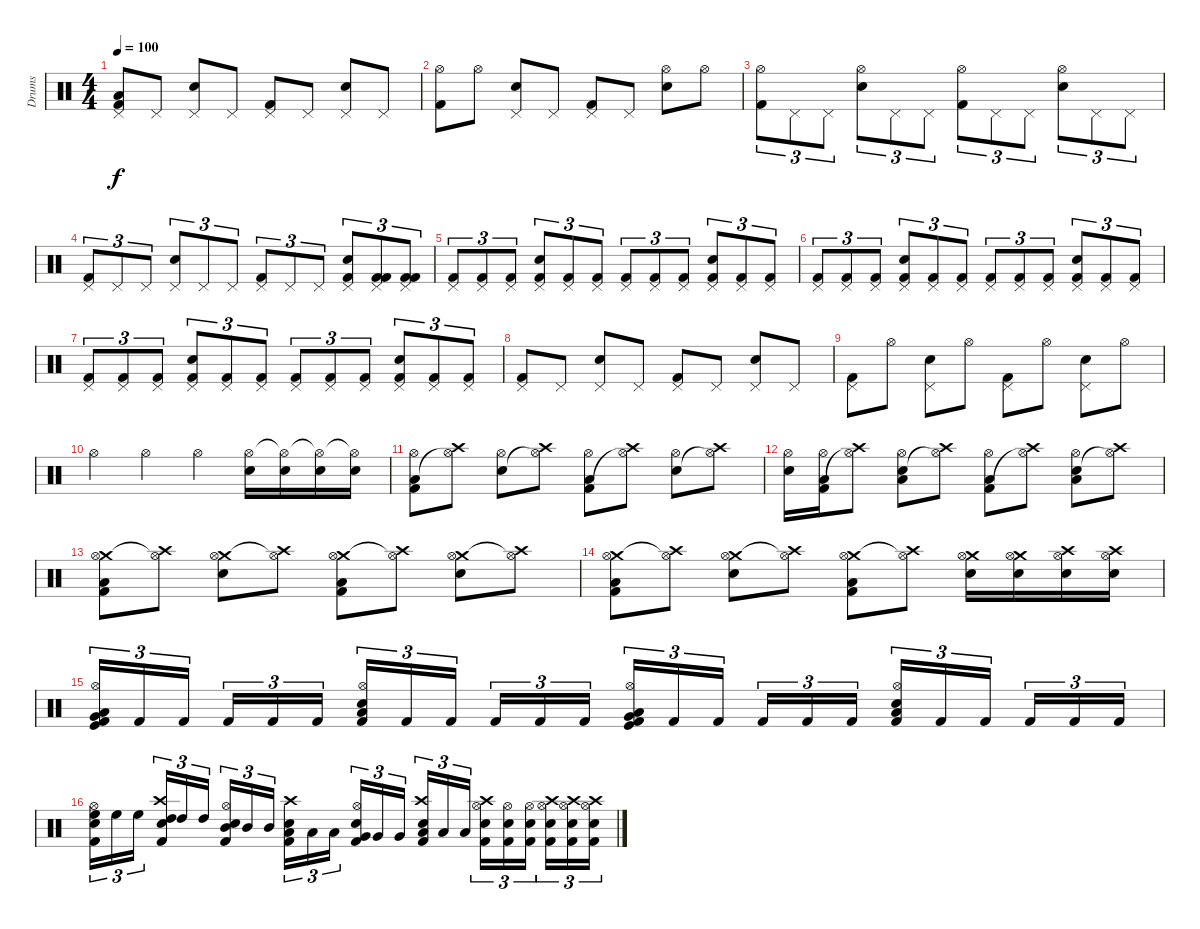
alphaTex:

\track ("Drums" "Drums") {instrument percussion}
\staff {score}
\articulation defaults
\ts (4 4)
\tempo 100
\clef neutral
\ks c
("Low Tom (hit)" "Pedal Hi-Hat (hit)" "Kick (hit) 2").8{dy f} "Pedal Hi-Hat (hit)".8 ("Pedal Hi-Hat (hit)" "Snare (hit) 2").8 "Pedal Hi-Hat (hit)".8 ("Pedal Hi-Hat (hit)" "Kick (hit) 2").8 "Pedal Hi-Hat (hit)".8 ("Pedal Hi-Hat (hit)" "Snare (hit) 2").8 "Pedal Hi-Hat (hit)".8 |
("Hi-Hat (open)" "Kick (hit) 2").8 "Hi-Hat (open)".8 ("Pedal Hi-Hat (hit)" "Snare (hit) 2").8 "Pedal Hi-Hat (hit)".8 ("Pedal Hi-Hat (hit)" "Kick (hit) 2").8 "Pedal Hi-Hat (hit)".8 ("Hi-Hat (open)" "Snare (hit) 2").8 "Hi-Hat (open)".8 |
("Hi-Hat (open)" "Kick (hit) 2").8{tu (3 2)} "Pedal Hi-Hat (hit)".8{tu (3 2)} "Pedal Hi-Hat (hit)".8{tu (3 2)} ("Hi-Hat (open)" "Snare (hit) 2").8{tu (3 2)} "Pedal Hi-Hat (hit)".8{tu (3 2)} "Pedal Hi-Hat (hit)".8{tu (3 2)} ("Hi-Hat (open)" "Kick (hit) 2").8{tu (3 2)} "Pedal Hi-Hat (hit)".8{tu (3 2)} "Pedal Hi-Hat (hit)".8{tu (3 2)} ("Hi-Hat (open)" "Snare (hit) 2").8{tu (3 2)} "Pedal Hi-Hat (hit)".8{tu (3 2)} "Pedal Hi-Hat (hit)".8{tu (3 2)} |
("Pedal Hi-Hat (hit)" "Kick (hit) 2").8{tu (3 2)} "Pedal Hi-Hat (hit)".8{tu (3 2)} "Pedal Hi-Hat (hit)".8{tu (3 2)} ("Pedal Hi-Hat (hit)" "Snare (hit) 2").8{tu (3 2)} "Pedal Hi-Hat (hit)".8{tu (3 2)} "Pedal Hi-Hat (hit)".8{tu (3 2)} ("Pedal Hi-Hat (hit)" "Kick (hit) 2").8{tu (3 2)} "Pedal Hi-Hat (hit)".8{tu (3 2)} "Pedal Hi-Hat (hit)".8{tu (3 2)} ("Pedal Hi-Hat (hit)" "Kick (hit) 2" "Snare (hit) 2").8{tu (3 2)} ("Pedal Hi-Hat (hit)" "Kick (hit) 2" "Kick (hit) 2").8{tu (3 2)} ("Pedal Hi-Hat (hit)" "Kick (hit) 2" "Kick (hit) 2").8{tu (3 2)} |
("Pedal Hi-Hat (hit)" "Kick (hit) 2").8{tu (3 2)} ("Pedal Hi-Hat (hit)" "Kick (hit) 2").8{tu (3 2)} ("Pedal Hi-Hat (hit)" "Kick (hit) 2").8{tu (3 2)} ("Pedal Hi-Hat (hit)" "Snare (hit) 2" "Kick (hit) 2").8{tu (3 2)} ("Pedal Hi-Hat (hit)" "Kick (hit) 2").8{tu (3 2)} ("Pedal Hi-Hat (hit)" "Kick (hit) 2").8{tu (3 2)} ("Pedal Hi-Hat (hit)" "Kick (hit) 2").8{tu (3 2)} ("Pedal Hi-Hat (hit)" "Kick (hit) 2").8{tu (3 2)} ("Pedal Hi-Hat (hit)" "Kick (hit) 2").8{tu (3 2)} ("Pedal Hi-Hat (hit)" "Snare (hit) 2" "Kick (hit) 2").8{tu (3 2)} ("Pedal Hi-Hat (hit)" "Kick (hit) 2").8{tu (3 2)} ("Pedal Hi-Hat (hit)" "Kick (hit) 2").8{tu (3 2)} |
("Pedal Hi-Hat (hit)" "Kick (hit) 2").8{tu (3 2)} ("Pedal Hi-Hat (hit)" "Kick (hit) 2").8{tu (3 2)} ("Pedal Hi-Hat (hit)" "Kick (hit) 2").8{tu (3 2)} ("Pedal Hi-Hat (hit)" "Snare (hit) 2" "Kick (hit) 2").8{tu (3 2)} ("Pedal Hi-Hat (hit)" "Kick (hit) 2").8{tu (3 2)} ("Pedal Hi-Hat (hit)" "Kick (hit) 2").8{tu (3 2)} ("Pedal Hi-Hat (hit)" "Kick (hit) 2").8{tu (3 2)} ("Pedal Hi-Hat (hit)" "Kick (hit) 2").8{tu (3 2)} ("Pedal Hi-Hat (hit)" "Kick (hit) 2").8{tu (3 2)} ("Pedal Hi-Hat (hit)" "Snare (hit) 2" "Kick (hit) 2").8{tu (3 2)} ("Pedal Hi-Hat (hit)" "Kick (hit) 2").8{tu (3 2)} ("Pedal Hi-Hat (hit)" "Kick (hit) 2").8{tu (3 2)} |
("Pedal Hi-Hat (hit)" "Kick (hit) 2").8{tu (3 2)} ("Pedal Hi-Hat (hit)" "Kick (hit) 2").8{tu (3 2)} ("Pedal Hi-Hat (hit)" "Kick (hit) 2").8{tu (3 2)} ("Pedal Hi-Hat (hit)" "Snare (hit) 2" "Kick (hit) 2").8{tu (3 2)} ("Pedal Hi-Hat (hit)" "Kick (hit) 2").8{tu (3 2)} ("Pedal Hi-Hat (hit)" "Kick (hit) 2").8{tu (3 2)} ("Pedal Hi-Hat (hit)" "Kick (hit) 2").8{tu (3 2)} ("Pedal Hi-Hat (hit)" "Kick (hit) 2").8{tu (3 2)} ("Pedal Hi-Hat (hit)" "Kick (hit) 2").8{tu (3 2)} ("Pedal Hi-Hat (hit)" "Snare (hit) 2" "Kick (hit) 2").8{tu (3 2)} ("Pedal Hi-Hat (hit)" "Kick (hit) 2").8{tu (3 2)} ("Pedal Hi-Hat (hit)" "Kick (hit) 2").8{tu (3 2)} |
("Pedal Hi-Hat (hit)" "Kick (hit) 2").8 "Pedal Hi-Hat (hit)".8 ("Pedal Hi-Hat (hit)" "Snare (hit) 2").8 "Pedal Hi-Hat (hit)".8 ("Pedal Hi-Hat (hit)" "Kick (hit) 2").8 "Pedal Hi-Hat (hit)".8 ("Pedal Hi-Hat (hit)" "Snare (hit) 2").8 "Pedal Hi-Hat (hit)".8 |
("Pedal Hi-Hat (hit)" "Kick (hit) 2").8 "Hi-Hat (open)".8 ("Pedal Hi-Hat (hit)" "Snare (hit) 2").8 "Hi-Hat (open)".8 ("Pedal Hi-Hat (hit)" "Kick (hit) 2").8 "Hi-Hat (open)".8 ("Pedal Hi-Hat (hit)" "Snare (hit) 2").8 "Hi-Hat (open)".8 |
"Hi-Hat (open)".4 "Hi-Hat (open)".4 "Hi-Hat (open)".4 ("Hi-Hat (open)" "Snare (hit) 2").16 ("Hi-Hat (open)"{t} "Snare (hit) 2").16 ("Hi-Hat (open)"{t} "Snare (hit) 2").16 ("Hi-Hat (open)"{t} "Snare (hit) 2").16 |
("Hi-Hat (open)" "Low Floor Tom (hit)" "Kick (hit) 2").8 ("Crash high (hit)" "Hi-Hat (open)"{t}).8 ("Hi-Hat (open)" "Snare (hit) 2").8 ("Crash high (hit)" "Hi-Hat (open)"{t}).8 ("Hi-Hat (open)" "Kick (hit) 2" "Low Floor Tom (hit)").8 ("Crash high (hit)" "Hi-Hat (open)"{t}).8 ("Hi-Hat (open)" "Snare (hit) 2").8 ("Crash high (hit)" "Hi-Hat (open)"{t}).8 |
("Hi-Hat (open)" "Snare (hit) 2").16 ("Hi-Hat (open)" "Kick (hit) 2" "Low Floor Tom (hit)").16 ("Crash high (hit)" "Hi-Hat (open)"{t}).8 ("Hi-Hat (open)" "Snare (hit) 2" "Low Floor Tom (hit)").8 ("Crash high (hit)" "Hi-Hat (open)"{t}).8 ("Hi-Hat (open)" "Kick (hit) 2" "Low Floor Tom (hit)").8 ("Crash high (hit)" "Hi-Hat (open)"{t}).8 ("Hi-Hat (open)" "Snare (hit) 2" "Low Floor Tom (hit)").8 ("Crash high (hit)" "Hi-Hat (open)"{t}).8 |
("Crash medium (hit)" "Hi-Hat (open)" "Low Floor Tom (hit)" "Kick (hit) 2").8 ("Crash high (hit)" "Hi-Hat (open)"{t}).8 ("Crash medium (hit)" "Hi-Hat (open)" "Snare (hit) 2").8 ("Crash high (hit)" "Hi-Hat (open)"{t}).8 ("Crash medium (hit)" "Hi-Hat (open)" "Kick (hit) 2" "Low Floor Tom (hit)").8 ("Crash high (hit)" "Hi-Hat (open)"{t}).8 ("Crash medium (hit)" "Hi-Hat (open)" "Snare (hit) 2").8 ("Crash high (hit)" "Hi-Hat (open)"{t}).8 |
("Crash medium (hit)" "Hi-Hat (open)" "Low Floor Tom (hit)" "Kick (hit) 2").8 ("Crash high (hit)" "Hi-Hat (open)"{t}).8 ("Crash medium (hit)" "Hi-Hat (open)" "Snare (hit) 2").8 ("Crash high (hit)" "Hi-Hat (open)"{t}).8 ("Crash medium (hit)" "Hi-Hat (open)" "Kick (hit) 2" "Low Floor Tom (hit)").8 ("Crash high (hit)" "Hi-Hat (open)"{t}).8 ("Crash medium (hit)" "Hi-Hat (open)" "Snare (hit) 2").16 ("Crash medium (hit)" "Hi-Hat (open)" "Snare (hit) 2").16 ("Crash high (hit)" "Hi-Hat (open)" "Snare (hit) 2").16 ("Crash high (hit)" "Hi-Hat (open)" "Snare (hit) 2").16 |
("Hi-Hat (open)" "Very Low Tom (hit)" "Low Floor Tom (hit)" "Kick (hit) 2" "Kick (hit)").16{tu (3 2)} "Kick (hit) 2".16{tu (3 2)} "Kick (hit) 2".16{tu (3 2)} "Kick (hit) 2".16{tu (3 2)} "Kick (hit) 2".16{tu (3 2)} "Kick (hit) 2".16{tu (3 2)} ("Hi-Hat (open)" "Snare (hit) 2" "Low Floor Tom (hit)" "Kick (hit) 2").16{tu (3 2)} "Kick (hit) 2".16{tu (3 2)} "Kick (hit) 2".16{tu (3 2)} "Kick (hit) 2".16{tu (3 2)} "Kick (hit) 2".16{tu (3 2)} "Kick (hit) 2".16{tu (3 2)} ("Hi-Hat (open)" "Very Low Tom (hit)" "Low Floor Tom (hit)" "Kick (hit) 2" "Kick (hit)").16{tu (3 2)} "Kick (hit) 2".16{tu (3 2)} "Kick (hit) 2".16{tu (3 2)} "Kick (hit) 2".16{tu (3 2)} "Kick (hit) 2".16{tu (3 2)} "Kick (hit) 2".16{tu (3 2)} ("Hi-Hat (open)" "Snare (hit) 2" "Low Floor Tom (hit)" "Kick (hit) 2").16{tu (3 2)} "Kick (hit) 2".16{tu (3 2)} "Kick (hit) 2".16{tu (3 2)} "Kick (hit) 2".16{tu (3 2)} "Kick (hit) 2".16{tu (3 2)} "Kick (hit) 2".16{tu (3 2)} |
("Hi-Hat (open)" "High Floor Tom (hit)" "Kick (hit) 2" "Electric Snare (hit)").16{tu (3 2)} "High Floor Tom (hit)".16{tu (3 2)} "High Floor Tom (hit)".16{tu (3 2)} ("Crash high (hit)" "High Tom (hit)" "Kick (hit) 2" "Electric Snare (hit)").16{tu (3 2)} "High Tom (hit)".16{tu (3 2)} "High Tom (hit)".16{tu (3 2)} ("Hi-Hat (open)" "Mid Tom (hit)" "Kick (hit) 2" "Electric Snare (hit)").16{tu (3 2)} "Mid Tom (hit)".16{tu (3 2)} "Mid Tom (hit)".16{tu (3 2)} ("Crash high (hit)" "Low Tom (hit)" "Kick (hit) 2" "Electric Snare (hit)").16{tu (3 2)} "Low Tom (hit)".16{tu (3 2)} "Low Tom (hit)".16{tu (3 2)} ("Hi-Hat (open)" "Very Low Tom (hit)" "Kick (hit) 2" "Electric Snare (hit)").16{tu (3 2)} "Very Low Tom (hit)".16{tu (3 2)} "Very Low Tom (hit)".16{tu (3 2)} ("Crash high (hit)" "Low Floor Tom (hit)" "Kick (hit) 2" "Electric Snare (hit)").16{tu (3 2)} "Low Floor Tom (hit)".16{tu (3 2)} "Low Floor Tom (hit)".16{tu (3 2)} ("Crash high (hit)" "Hi-Hat (open)" "Snare (hit) 2" "Kick (hit) 2").16{tu (3 2)} ("Hi-Hat (open)" "Snare (hit) 2" "Kick (hit) 2").16{tu (3 2)} ("Hi-Hat (open)" "Snare (hit) 2" "Kick (hit) 2").16{tu (3 2)} ("Crash high (hit)" "Hi-Hat (open)" "Snare (hit) 2" "Kick (hit) 2").16{tu (3 2)} ("Crash high (hit)" "Hi-Hat (open)" "Snare (hit) 2" "Kick (hit) 2").16{tu (3 2)} ("Crash high (hit)" "Hi-Hat (open)" "Snare (hit) 2" "Kick (hit) 2").16{tu (3 2)}
